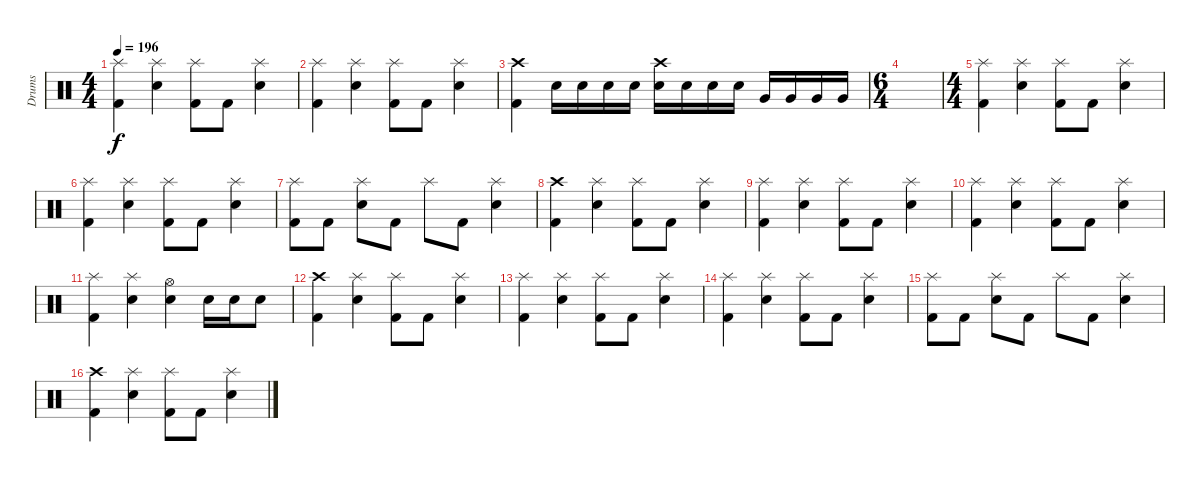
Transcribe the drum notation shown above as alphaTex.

\track ("Drums" "Drums") {instrument percussion}
\staff {score}
\articulation defaults
\ts (4 4)
\tempo 196
\clef neutral
\ks c
("Splash (hit)" "Kick (hit) 2").4{dy f} ("Splash (hit)" "Snare (hit) 2").4 ("Splash (hit)" "Kick (hit) 2").8 "Kick (hit) 2".8 ("Splash (hit)" "Snare (hit) 2").4 |
("Splash (hit)" "Kick (hit) 2").4 ("Splash (hit)" "Snare (hit) 2").4 ("Splash (hit)" "Kick (hit) 2").8 "Kick (hit) 2".8 ("Splash (hit)" "Snare (hit) 2").4 |
("Crash high (hit)" "Kick (hit) 2").4 "Snare (hit) 2".16 "Snare (hit) 2".16 "Snare (hit) 2".16 "Snare (hit) 2".16 ("Crash high (hit)" "Electric Snare (hit)").16 "Electric Snare (hit)".16 "Electric Snare (hit)".16 "Electric Snare (hit)".16 "Very Low Tom (hit)".16 "Very Low Tom (hit)".16 "Very Low Tom (hit)".16 "Very Low Tom (hit)".16 |
\ts (6 4)
|
\ts (4 4)
("Splash (hit)" "Kick (hit) 2").4 ("Splash (hit)" "Snare (hit) 2").4 ("Splash (hit)" "Kick (hit) 2").8 "Kick (hit) 2".8 ("Splash (hit)" "Snare (hit) 2").4 |
("Splash (hit)" "Kick (hit) 2").4 ("Splash (hit)" "Snare (hit) 2").4 ("Splash (hit)" "Kick (hit) 2").8 "Kick (hit) 2".8 ("Splash (hit)" "Snare (hit) 2").4 |
("Splash (hit)" "Kick (hit) 2").8 "Kick (hit) 2".8 ("Splash (hit)" "Snare (hit) 2").8 "Kick (hit) 2".8 "Splash (hit)".8 "Kick (hit) 2".8 ("Splash (hit)" "Snare (hit) 2").4 |
("Crash high (hit)" "Kick (hit) 2").4 ("Splash (hit)" "Snare (hit) 2").4 ("Splash (hit)" "Kick (hit) 2").8 "Kick (hit) 2".8 ("Splash (hit)" "Snare (hit) 2").4 |
("Splash (hit)" "Kick (hit) 2").4 ("Splash (hit)" "Snare (hit) 2").4 ("Splash (hit)" "Kick (hit) 2").8 "Kick (hit) 2".8 ("Splash (hit)" "Snare (hit) 2").4 |
("Splash (hit)" "Kick (hit) 2").4 ("Splash (hit)" "Snare (hit) 2").4 ("Splash (hit)" "Kick (hit) 2").8 "Kick (hit) 2".8 ("Splash (hit)" "Snare (hit) 2").4 |
("Splash (hit)" "Kick (hit) 2").4 ("Splash (hit)" "Snare (hit) 2").4 ("Hi-Hat (open)" "Snare (hit) 2").4 "Snare (hit) 2".16 "Snare (hit) 2".16 "Snare (hit) 2".8 |
("Crash high (hit)" "Kick (hit) 2").4 ("Splash (hit)" "Snare (hit) 2").4 ("Splash (hit)" "Kick (hit) 2").8 "Kick (hit) 2".8 ("Splash (hit)" "Snare (hit) 2").4 |
("Splash (hit)" "Kick (hit) 2").4 ("Splash (hit)" "Snare (hit) 2").4 ("Splash (hit)" "Kick (hit) 2").8 "Kick (hit) 2".8 ("Splash (hit)" "Snare (hit) 2").4 |
("Splash (hit)" "Kick (hit) 2").4 ("Splash (hit)" "Snare (hit) 2").4 ("Splash (hit)" "Kick (hit) 2").8 "Kick (hit) 2".8 ("Splash (hit)" "Snare (hit) 2").4 |
("Splash (hit)" "Kick (hit) 2").8 "Kick (hit) 2".8 ("Splash (hit)" "Snare (hit) 2").8 "Kick (hit) 2".8 "Splash (hit)".8 "Kick (hit) 2".8 ("Splash (hit)" "Snare (hit) 2").4 |
("Crash high (hit)" "Kick (hit) 2").4 ("Splash (hit)" "Snare (hit) 2").4 ("Splash (hit)" "Kick (hit) 2").8 "Kick (hit) 2".8 ("Splash (hit)" "Snare (hit) 2").4
